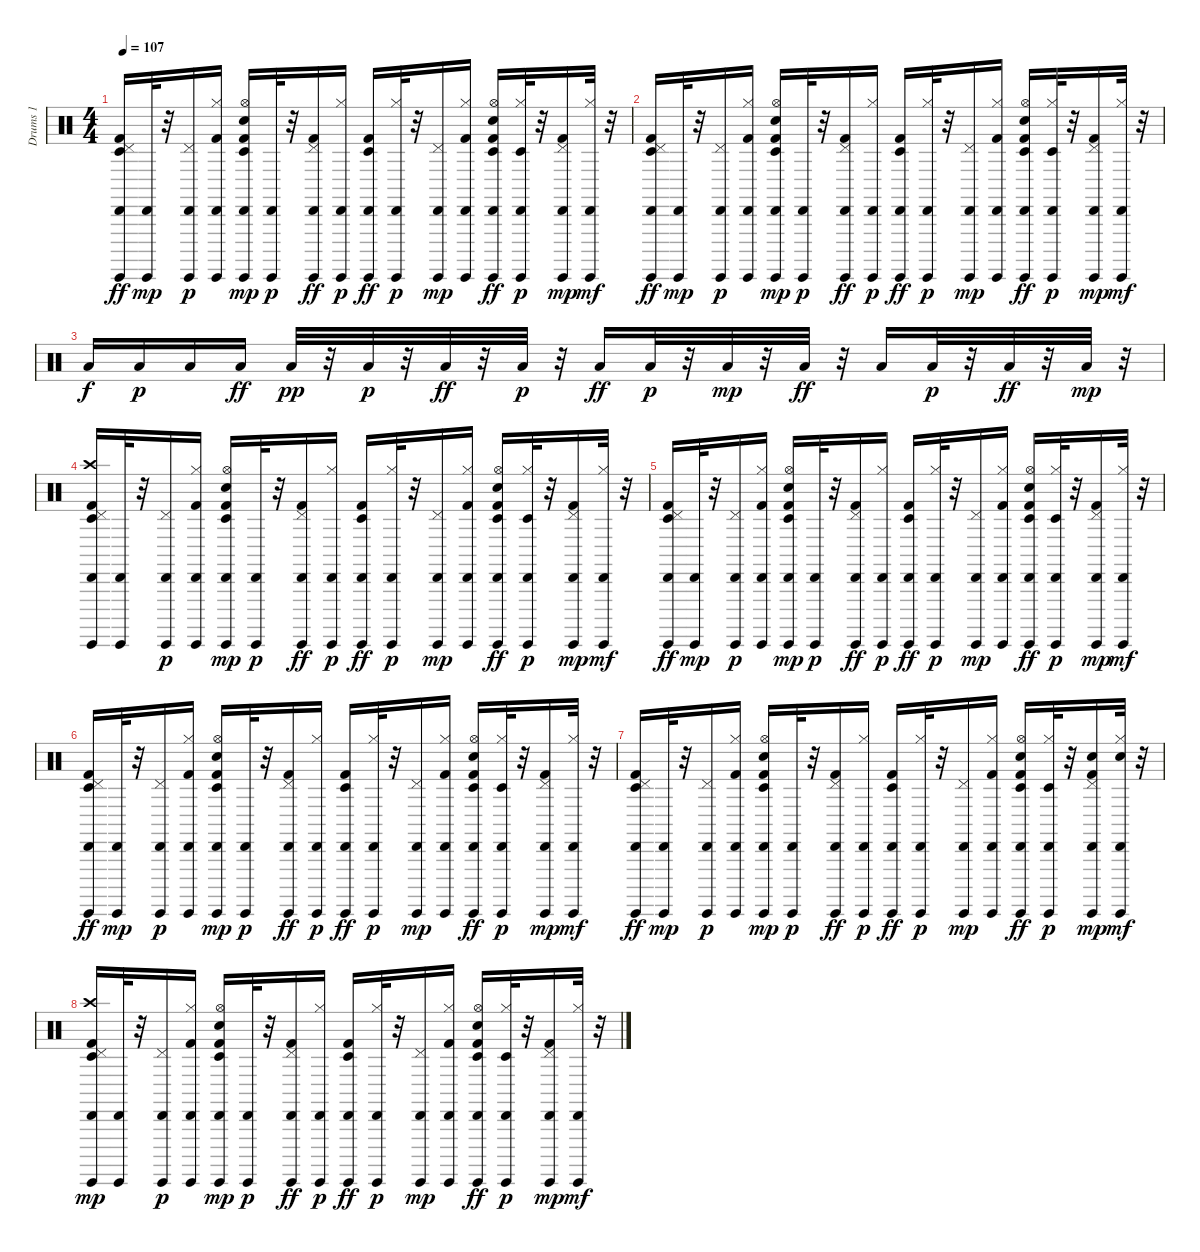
\track ("Drums 1" "Drums 1") {instrument percussion}
\staff {score}
\articulation defaults
\ts (4 4)
\tempo 107
\clef neutral
\ks c
("Timbale low (hit)" "Kick (hit) 2" "Pedal Hi-Hat (hit)" "Guiro (hit)" "Cabasa (hit)").16{dy ff} ("Guiro (hit)" "Cabasa (hit)").32{dy mp} r.32 ("Pedal Hi-Hat (hit)" "Guiro (hit)" "Cabasa (hit)").16{dy p} ("Kick (hit) 2" "Hi-Hat (closed)" "Guiro (hit)" "Cabasa (hit)").16 ("Timbale low (hit)" "Kick (hit) 2" "Electric Snare (hit)" "Hi-Hat (open)" "Guiro (hit)" "Cabasa (hit)").16{dy mp} ("Guiro (hit)" "Cabasa (hit)").32{dy p} r.32 ("Kick (hit) 2" "Pedal Hi-Hat (hit)" "Guiro (hit)" "Cabasa (hit)").16{dy ff} ("Hi-Hat (closed)" "Guiro (hit)" "Cabasa (hit)").16{dy p} ("Timbale low (hit)" "Kick (hit) 2" "Guiro (hit)" "Cabasa (hit)").16{dy ff} ("Hi-Hat (closed)" "Guiro (hit)" "Cabasa (hit)").32{dy p} r.32 ("Pedal Hi-Hat (hit)" "Guiro (hit)" "Cabasa (hit)").16{dy mp} ("Kick (hit) 2" "Hi-Hat (closed)" "Guiro (hit)" "Cabasa (hit)").16 ("Timbale low (hit)" "Kick (hit) 2" "Electric Snare (hit)" "Hi-Hat (open)" "Guiro (hit)" "Cabasa (hit)").16{dy ff} ("Timbale low (hit)" "Hi-Hat (closed)" "Guiro (hit)" "Cabasa (hit)").32{dy p} r.32 ("Kick (hit) 2" "Pedal Hi-Hat (hit)" "Guiro (hit)" "Cabasa (hit)").16{dy mp} ("Hi-Hat (closed)" "Guiro (hit)" "Cabasa (hit)").32{dy mf} r.32 |
("Timbale low (hit)" "Kick (hit) 2" "Pedal Hi-Hat (hit)" "Guiro (hit)" "Cabasa (hit)").16{dy ff} ("Guiro (hit)" "Cabasa (hit)").32{dy mp} r.32 ("Pedal Hi-Hat (hit)" "Guiro (hit)" "Cabasa (hit)").16{dy p} ("Kick (hit) 2" "Hi-Hat (closed)" "Guiro (hit)" "Cabasa (hit)").16 ("Timbale low (hit)" "Kick (hit) 2" "Electric Snare (hit)" "Hi-Hat (open)" "Guiro (hit)" "Cabasa (hit)").16{dy mp} ("Guiro (hit)" "Cabasa (hit)").32{dy p} r.32 ("Kick (hit) 2" "Pedal Hi-Hat (hit)" "Guiro (hit)" "Cabasa (hit)").16{dy ff} ("Hi-Hat (closed)" "Guiro (hit)" "Cabasa (hit)").16{dy p} ("Timbale low (hit)" "Kick (hit) 2" "Guiro (hit)" "Cabasa (hit)").16{dy ff} ("Hi-Hat (closed)" "Guiro (hit)" "Cabasa (hit)").32{dy p} r.32 ("Pedal Hi-Hat (hit)" "Guiro (hit)" "Cabasa (hit)").16{dy mp} ("Kick (hit) 2" "Hi-Hat (closed)" "Guiro (hit)" "Cabasa (hit)").16 ("Timbale low (hit)" "Kick (hit) 2" "Electric Snare (hit)" "Hi-Hat (open)" "Guiro (hit)" "Cabasa (hit)").16{dy ff} ("Timbale low (hit)" "Hi-Hat (closed)" "Guiro (hit)" "Cabasa (hit)").32{dy p} r.32 ("Kick (hit) 2" "Pedal Hi-Hat (hit)" "Guiro (hit)" "Cabasa (hit)").16{dy mp} ("Hi-Hat (closed)" "Guiro (hit)" "Cabasa (hit)").32{dy mf} r.32 |
"Low Floor Tom (hit)".16{dy f} "Low Floor Tom (hit)".16{dy p} "Low Floor Tom (hit)".16 "Low Floor Tom (hit)".16{dy ff} "Low Floor Tom (hit)".32{dy pp} r.32 "Low Floor Tom (hit)".32{dy p} r.32 "Low Floor Tom (hit)".32{dy ff} r.32 "Low Floor Tom (hit)".32{dy p} r.32 "Low Floor Tom (hit)".16{dy ff} "Low Floor Tom (hit)".32{dy p} r.32 "Low Floor Tom (hit)".32{dy mp} r.32 "Low Floor Tom (hit)".32{dy ff} r.32 "Low Floor Tom (hit)".16 "Low Floor Tom (hit)".32{dy p} r.32 "Low Floor Tom (hit)".32{dy ff} r.32 "Low Floor Tom (hit)".32{dy mp} r.32 |
("Timbale low (hit)" "Kick (hit) 2" "Pedal Hi-Hat (hit)" "Guiro (hit)" "Cabasa (hit)" "Crash high (hit)").16 ("Guiro (hit)" "Cabasa (hit)").32 r.32 ("Pedal Hi-Hat (hit)" "Guiro (hit)" "Cabasa (hit)").16{dy p} ("Kick (hit) 2" "Hi-Hat (closed)" "Guiro (hit)" "Cabasa (hit)").16 ("Timbale low (hit)" "Kick (hit) 2" "Snare (hit) 2" "Hi-Hat (open)" "Guiro (hit)" "Cabasa (hit)").16{dy mp} ("Guiro (hit)" "Cabasa (hit)").32{dy p} r.32 ("Kick (hit) 2" "Pedal Hi-Hat (hit)" "Guiro (hit)" "Cabasa (hit)").16{dy ff} ("Hi-Hat (closed)" "Guiro (hit)" "Cabasa (hit)").16{dy p} ("Timbale low (hit)" "Kick (hit) 2" "Guiro (hit)" "Cabasa (hit)").16{dy ff} ("Hi-Hat (closed)" "Guiro (hit)" "Cabasa (hit)").32{dy p} r.32 ("Pedal Hi-Hat (hit)" "Guiro (hit)" "Cabasa (hit)").16{dy mp} ("Kick (hit) 2" "Hi-Hat (closed)" "Guiro (hit)" "Cabasa (hit)").16 ("Timbale low (hit)" "Kick (hit) 2" "Snare (hit) 2" "Hi-Hat (open)" "Guiro (hit)" "Cabasa (hit)").16{dy ff} ("Timbale low (hit)" "Hi-Hat (closed)" "Guiro (hit)" "Cabasa (hit)").32{dy p} r.32 ("Kick (hit) 2" "Pedal Hi-Hat (hit)" "Guiro (hit)" "Cabasa (hit)").16{dy mp} ("Hi-Hat (closed)" "Guiro (hit)" "Cabasa (hit)").32{dy mf} r.32 |
("Timbale low (hit)" "Kick (hit) 2" "Pedal Hi-Hat (hit)" "Guiro (hit)" "Cabasa (hit)").16{dy ff} ("Guiro (hit)" "Cabasa (hit)").32{dy mp} r.32 ("Pedal Hi-Hat (hit)" "Guiro (hit)" "Cabasa (hit)").16{dy p} ("Kick (hit) 2" "Hi-Hat (closed)" "Guiro (hit)" "Cabasa (hit)").16 ("Timbale low (hit)" "Kick (hit) 2" "Snare (hit) 2" "Hi-Hat (open)" "Guiro (hit)" "Cabasa (hit)").16{dy mp} ("Guiro (hit)" "Cabasa (hit)").32{dy p} r.32 ("Kick (hit) 2" "Pedal Hi-Hat (hit)" "Guiro (hit)" "Cabasa (hit)").16{dy ff} ("Hi-Hat (closed)" "Guiro (hit)" "Cabasa (hit)").16{dy p} ("Timbale low (hit)" "Kick (hit) 2" "Guiro (hit)" "Cabasa (hit)").16{dy ff} ("Hi-Hat (closed)" "Guiro (hit)" "Cabasa (hit)").32{dy p} r.32 ("Pedal Hi-Hat (hit)" "Guiro (hit)" "Cabasa (hit)").16{dy mp} ("Kick (hit) 2" "Hi-Hat (closed)" "Guiro (hit)" "Cabasa (hit)").16 ("Timbale low (hit)" "Kick (hit) 2" "Snare (hit) 2" "Hi-Hat (open)" "Guiro (hit)" "Cabasa (hit)").16{dy ff} ("Timbale low (hit)" "Hi-Hat (closed)" "Guiro (hit)" "Cabasa (hit)").32{dy p} r.32 ("Kick (hit) 2" "Pedal Hi-Hat (hit)" "Guiro (hit)" "Cabasa (hit)").16{dy mp} ("Hi-Hat (closed)" "Guiro (hit)" "Cabasa (hit)").32{dy mf} r.32 |
("Timbale low (hit)" "Kick (hit) 2" "Pedal Hi-Hat (hit)" "Guiro (hit)" "Cabasa (hit)").16{dy ff} ("Guiro (hit)" "Cabasa (hit)").32{dy mp} r.32 ("Pedal Hi-Hat (hit)" "Guiro (hit)" "Cabasa (hit)").16{dy p} ("Kick (hit) 2" "Hi-Hat (closed)" "Guiro (hit)" "Cabasa (hit)").16 ("Timbale low (hit)" "Kick (hit) 2" "Snare (hit) 2" "Hi-Hat (open)" "Guiro (hit)" "Cabasa (hit)").16{dy mp} ("Guiro (hit)" "Cabasa (hit)").32{dy p} r.32 ("Kick (hit) 2" "Pedal Hi-Hat (hit)" "Guiro (hit)" "Cabasa (hit)").16{dy ff} ("Hi-Hat (closed)" "Guiro (hit)" "Cabasa (hit)").16{dy p} ("Timbale low (hit)" "Kick (hit) 2" "Guiro (hit)" "Cabasa (hit)").16{dy ff} ("Hi-Hat (closed)" "Guiro (hit)" "Cabasa (hit)").32{dy p} r.32 ("Pedal Hi-Hat (hit)" "Guiro (hit)" "Cabasa (hit)").16{dy mp} ("Kick (hit) 2" "Hi-Hat (closed)" "Guiro (hit)" "Cabasa (hit)").16 ("Timbale low (hit)" "Kick (hit) 2" "Snare (hit) 2" "Hi-Hat (open)" "Guiro (hit)" "Cabasa (hit)").16{dy ff} ("Timbale low (hit)" "Hi-Hat (closed)" "Guiro (hit)" "Cabasa (hit)").32{dy p} r.32 ("Kick (hit) 2" "Pedal Hi-Hat (hit)" "Guiro (hit)" "Cabasa (hit)").16{dy mp} ("Hi-Hat (closed)" "Guiro (hit)" "Cabasa (hit)").32{dy mf} r.32 |
("Timbale low (hit)" "Kick (hit) 2" "Pedal Hi-Hat (hit)" "Guiro (hit)" "Cabasa (hit)").16{dy ff} ("Guiro (hit)" "Cabasa (hit)").32{dy mp} r.32 ("Pedal Hi-Hat (hit)" "Guiro (hit)" "Cabasa (hit)").16{dy p} ("Kick (hit) 2" "Hi-Hat (closed)" "Guiro (hit)" "Cabasa (hit)").16 ("Timbale low (hit)" "Kick (hit) 2" "Snare (hit) 2" "Hi-Hat (open)" "Guiro (hit)" "Cabasa (hit)").16{dy mp} ("Guiro (hit)" "Cabasa (hit)").32{dy p} r.32 ("Kick (hit) 2" "Pedal Hi-Hat (hit)" "Guiro (hit)" "Cabasa (hit)").16{dy ff} ("Hi-Hat (closed)" "Guiro (hit)" "Cabasa (hit)").16{dy p} ("Timbale low (hit)" "Kick (hit) 2" "Guiro (hit)" "Cabasa (hit)").16{dy ff} ("Hi-Hat (closed)" "Guiro (hit)" "Cabasa (hit)").32{dy p} r.32 ("Pedal Hi-Hat (hit)" "Guiro (hit)" "Cabasa (hit)").16{dy mp} ("Kick (hit) 2" "Hi-Hat (closed)" "Guiro (hit)" "Cabasa (hit)").16 ("Timbale low (hit)" "Kick (hit) 2" "Snare (hit) 2" "Hi-Hat (open)" "Guiro (hit)" "Cabasa (hit)").16{dy ff} ("Timbale low (hit)" "Hi-Hat (closed)" "Guiro (hit)" "Cabasa (hit)").32{dy p} r.32 ("Kick (hit) 2" "Pedal Hi-Hat (hit)" "Guiro (hit)" "Snare (hit) 2" "Cabasa (hit)").16{dy mp} ("Hi-Hat (closed)" "Guiro (hit)" "Snare (hit) 2" "Cabasa (hit)").32{dy mf} r.32 |
("Timbale low (hit)" "Kick (hit) 2" "Pedal Hi-Hat (hit)" "Guiro (hit)" "Cabasa (hit)" "Crash high (hit)").16{dy mp} ("Guiro (hit)" "Cabasa (hit)").32 r.32 ("Pedal Hi-Hat (hit)" "Guiro (hit)" "Cabasa (hit)").16{dy p} ("Kick (hit) 2" "Hi-Hat (closed)" "Guiro (hit)" "Cabasa (hit)").16 ("Timbale low (hit)" "Kick (hit) 2" "Snare (hit) 2" "Hi-Hat (open)" "Guiro (hit)" "Cabasa (hit)").16{dy mp} ("Guiro (hit)" "Cabasa (hit)").32{dy p} r.32 ("Kick (hit) 2" "Pedal Hi-Hat (hit)" "Guiro (hit)" "Cabasa (hit)").16{dy ff} ("Hi-Hat (closed)" "Guiro (hit)" "Cabasa (hit)").16{dy p} ("Timbale low (hit)" "Kick (hit) 2" "Guiro (hit)" "Cabasa (hit)").16{dy ff} ("Hi-Hat (closed)" "Guiro (hit)" "Cabasa (hit)").32{dy p} r.32 ("Pedal Hi-Hat (hit)" "Guiro (hit)" "Cabasa (hit)").16{dy mp} ("Kick (hit) 2" "Hi-Hat (closed)" "Guiro (hit)" "Cabasa (hit)").16 ("Timbale low (hit)" "Kick (hit) 2" "Snare (hit) 2" "Hi-Hat (open)" "Guiro (hit)" "Cabasa (hit)").16{dy ff} ("Timbale low (hit)" "Hi-Hat (closed)" "Guiro (hit)" "Cabasa (hit)").32{dy p} r.32 ("Kick (hit) 2" "Pedal Hi-Hat (hit)" "Guiro (hit)" "Cabasa (hit)").16{dy mp} ("Hi-Hat (closed)" "Guiro (hit)" "Cabasa (hit)").32{dy mf} r.32
